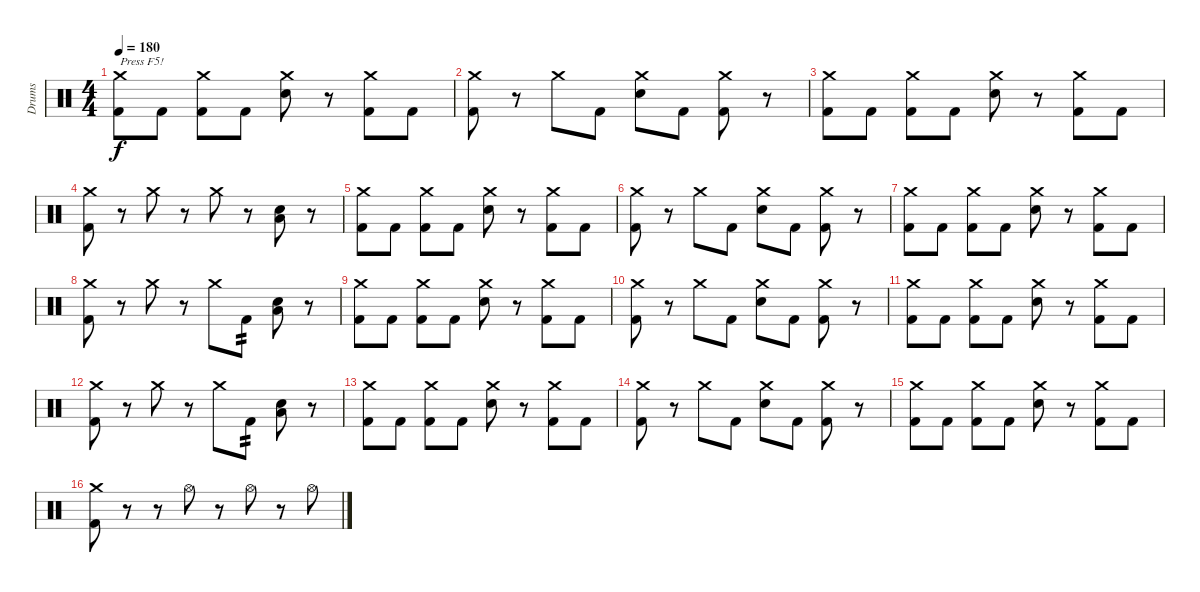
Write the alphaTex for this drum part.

\track ("Drums" "Drums") {instrument percussion}
\staff {score}
\articulation defaults
\ts (4 4)
\tempo 180
\clef neutral
\ks c
("Crash medium (hit)" "Kick (hit) 2").8{txt "Press F5!" dy f} "Kick (hit) 2".8 ("Crash medium (hit)" "Kick (hit) 2").8 "Kick (hit) 2".8 ("Crash medium (hit)" "Electric Snare (hit)").8 r.8 ("Crash medium (hit)" "Kick (hit) 2").8 "Kick (hit) 2".8 |
("Crash medium (hit)" "Kick (hit) 2").8 r.8 "Crash medium (hit)".8 "Kick (hit) 2".8 ("Crash medium (hit)" "Electric Snare (hit)").8 "Kick (hit) 2".8 ("Crash medium (hit)" "Kick (hit) 2").8 r.8 |
("Crash medium (hit)" "Kick (hit) 2").8 "Kick (hit) 2".8 ("Crash medium (hit)" "Kick (hit) 2").8 "Kick (hit) 2".8 ("Crash medium (hit)" "Electric Snare (hit)").8 r.8 ("Crash medium (hit)" "Kick (hit) 2").8 "Kick (hit) 2".8 |
("Crash medium (hit)" "Kick (hit) 2").8 r.8 "Crash medium (hit)".8 r.8 "Crash medium (hit)".8 r.8 ("Low Floor Tom (hit)" "Electric Snare (hit)").8{bd 60} r.8 |
("Crash medium (hit)" "Kick (hit) 2").8 "Kick (hit) 2".8 ("Crash medium (hit)" "Kick (hit) 2").8 "Kick (hit) 2".8 ("Crash medium (hit)" "Electric Snare (hit)").8 r.8 ("Crash medium (hit)" "Kick (hit) 2").8 "Kick (hit) 2".8 |
("Crash medium (hit)" "Kick (hit) 2").8 r.8 "Crash medium (hit)".8 "Kick (hit) 2".8 ("Crash medium (hit)" "Electric Snare (hit)").8 "Kick (hit) 2".8 ("Crash medium (hit)" "Kick (hit) 2").8 r.8 |
("Crash medium (hit)" "Kick (hit) 2").8 "Kick (hit) 2".8 ("Crash medium (hit)" "Kick (hit) 2").8 "Kick (hit) 2".8 ("Crash medium (hit)" "Electric Snare (hit)").8 r.8 ("Crash medium (hit)" "Kick (hit) 2").8 "Kick (hit) 2".8 |
("Crash medium (hit)" "Kick (hit) 2").8 r.8 "Crash medium (hit)".8 r.8 "Crash medium (hit)".8 "Kick (hit) 2".8{tp 2} ("Low Floor Tom (hit)" "Electric Snare (hit)").8{bd 60} r.8 |
("Crash medium (hit)" "Kick (hit) 2").8 "Kick (hit) 2".8 ("Crash medium (hit)" "Kick (hit) 2").8 "Kick (hit) 2".8 ("Crash medium (hit)" "Electric Snare (hit)").8 r.8 ("Crash medium (hit)" "Kick (hit) 2").8 "Kick (hit) 2".8 |
("Crash medium (hit)" "Kick (hit) 2").8 r.8 "Crash medium (hit)".8 "Kick (hit) 2".8 ("Crash medium (hit)" "Electric Snare (hit)").8 "Kick (hit) 2".8 ("Crash medium (hit)" "Kick (hit) 2").8 r.8 |
("Crash medium (hit)" "Kick (hit) 2").8 "Kick (hit) 2".8 ("Crash medium (hit)" "Kick (hit) 2").8 "Kick (hit) 2".8 ("Crash medium (hit)" "Electric Snare (hit)").8 r.8 ("Crash medium (hit)" "Kick (hit) 2").8 "Kick (hit) 2".8 |
("Crash medium (hit)" "Kick (hit) 2").8 r.8 "Crash medium (hit)".8 r.8 "Crash medium (hit)".8 "Kick (hit) 2".8{tp 2} ("Low Floor Tom (hit)" "Electric Snare (hit)").8{bd 60} r.8 |
("Crash medium (hit)" "Kick (hit) 2").8 "Kick (hit) 2".8 ("Crash medium (hit)" "Kick (hit) 2").8 "Kick (hit) 2".8 ("Crash medium (hit)" "Electric Snare (hit)").8 r.8 ("Crash medium (hit)" "Kick (hit) 2").8 "Kick (hit) 2".8 |
("Crash medium (hit)" "Kick (hit) 2").8 r.8 "Crash medium (hit)".8 "Kick (hit) 2".8 ("Crash medium (hit)" "Electric Snare (hit)").8 "Kick (hit) 2".8 ("Crash medium (hit)" "Kick (hit) 2").8 r.8 |
("Crash medium (hit)" "Kick (hit) 2").8 "Kick (hit) 2".8 ("Crash medium (hit)" "Kick (hit) 2").8 "Kick (hit) 2".8 ("Crash medium (hit)" "Electric Snare (hit)").8 r.8 ("Crash medium (hit)" "Kick (hit) 2").8 "Kick (hit) 2".8 |
("Crash medium (hit)" "Kick (hit) 2").8 r.8 r.8 "Hi-Hat (open)".8 r.8 "Hi-Hat (open)".8 r.8 "Hi-Hat (open)".8
